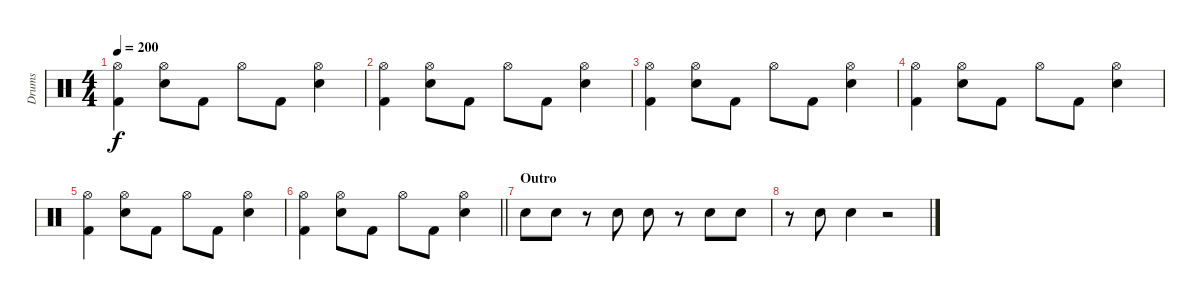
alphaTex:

\track ("Drums" "Drums") {instrument percussion}
\staff {score}
\articulation defaults
\ts (4 4)
\tempo 200
\clef neutral
\ks c
("Hi-Hat (open)" "Kick (hit) 2").4{dy f} ("Snare (hit) 2" "Hi-Hat (open)").8 "Kick (hit) 2".8 "Hi-Hat (open)".8 "Kick (hit) 2".8 ("Snare (hit) 2" "Hi-Hat (open)").4 |
("Hi-Hat (open)" "Kick (hit) 2").4 ("Snare (hit) 2" "Hi-Hat (open)").8 "Kick (hit) 2".8 "Hi-Hat (open)".8 "Kick (hit) 2".8 ("Snare (hit) 2" "Hi-Hat (open)").4 |
("Hi-Hat (open)" "Kick (hit) 2").4 ("Snare (hit) 2" "Hi-Hat (open)").8 "Kick (hit) 2".8 "Hi-Hat (open)".8 "Kick (hit) 2".8 ("Snare (hit) 2" "Hi-Hat (open)").4 |
("Hi-Hat (open)" "Kick (hit) 2").4 ("Snare (hit) 2" "Hi-Hat (open)").8 "Kick (hit) 2".8 "Hi-Hat (open)".8 "Kick (hit) 2".8 ("Snare (hit) 2" "Hi-Hat (open)").4 |
("Hi-Hat (open)" "Kick (hit) 2").4 ("Snare (hit) 2" "Hi-Hat (open)").8 "Kick (hit) 2".8 "Hi-Hat (open)".8 "Kick (hit) 2".8 ("Snare (hit) 2" "Hi-Hat (open)").4 |
\barLineRight lightlight
("Hi-Hat (open)" "Kick (hit) 2").4 ("Snare (hit) 2" "Hi-Hat (open)").8 "Kick (hit) 2".8 "Hi-Hat (open)".8 "Kick (hit) 2".8 ("Snare (hit) 2" "Hi-Hat (open)").4 |
\section ("" "Outro")
"Snare (hit) 2".8 "Snare (hit) 2".8 r.8 "Snare (hit) 2".8 "Snare (hit) 2".8 r.8 "Snare (hit) 2".8 "Snare (hit) 2".8 |
r.8 "Snare (hit) 2".8 "Snare (hit) 2".4 r.2
